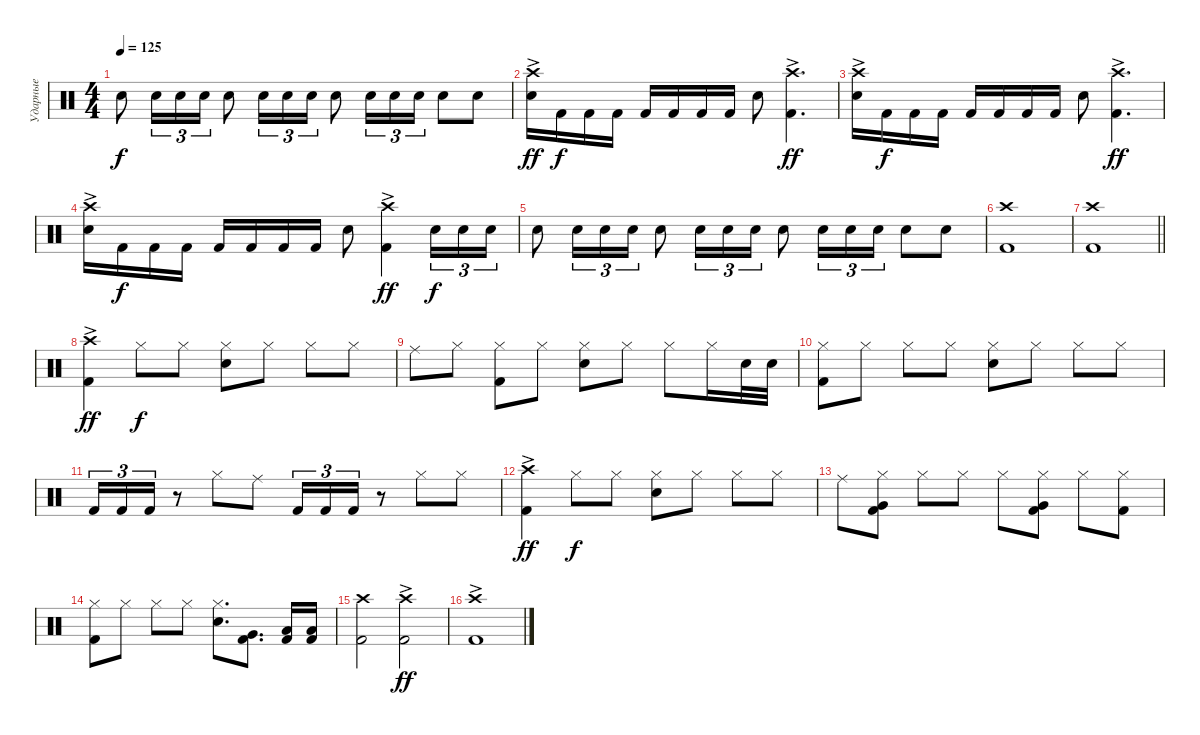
\track ("Ударные" "Ударные") {instrument percussion}
\staff
\articulation defaults
\ts (4 4)
\tempo 125
\clef neutral
\ks c "Snare (hit) 2".8{dy f} "Snare (hit) 2".16{tu (3 2)} "Snare (hit) 2".16{tu (3 2)} "Snare (hit) 2".16{tu (3 2)} "Snare (hit) 2".8 "Snare (hit) 2".16{tu (3 2)} "Snare (hit) 2".16{tu (3 2)} "Snare (hit) 2".16{tu (3 2)} "Snare (hit) 2".8 "Snare (hit) 2".16{tu (3 2)} "Snare (hit) 2".16{tu (3 2)} "Snare (hit) 2".16{tu (3 2)} "Snare (hit) 2".8 "Snare (hit) 2".8
|
("Snare (hit) 2" "Crash high (hit)"{ac}).16{dy ff} "Kick (hit) 2".16{dy f} "Kick (hit) 2".16 "Kick (hit) 2".16 "Kick (hit) 2".16 "Kick (hit) 2".16 "Kick (hit) 2".16 "Kick (hit) 2".16 "Snare (hit) 2".8 ("Kick (hit) 2" "Crash high (hit)"{ac}).4{d dy ff} |
("Snare (hit) 2" "Crash high (hit)"{ac}).16 "Kick (hit) 2".16{dy f} "Kick (hit) 2".16 "Kick (hit) 2".16 "Kick (hit) 2".16 "Kick (hit) 2".16 "Kick (hit) 2".16 "Kick (hit) 2".16 "Snare (hit) 2".8 ("Kick (hit) 2" "Crash high (hit)"{ac}).4{d dy ff} |
("Snare (hit) 2" "Crash high (hit)"{ac}).16 "Kick (hit) 2".16{dy f} "Kick (hit) 2".16 "Kick (hit) 2".16 "Kick (hit) 2".16 "Kick (hit) 2".16 "Kick (hit) 2".16 "Kick (hit) 2".16 "Snare (hit) 2".8 ("Kick (hit) 2" "Crash high (hit)"{ac}).4{dy ff} "Snare (hit) 2".16{tu (3 2) dy f} "Snare (hit) 2".16{tu (3 2)} "Snare (hit) 2".16{tu (3 2)} |
"Snare (hit) 2".8 "Snare (hit) 2".16{tu (3 2)} "Snare (hit) 2".16{tu (3 2)} "Snare (hit) 2".16{tu (3 2)} "Snare (hit) 2".8 "Snare (hit) 2".16{tu (3 2)} "Snare (hit) 2".16{tu (3 2)} "Snare (hit) 2".16{tu (3 2)} "Snare (hit) 2".8 "Snare (hit) 2".16{tu (3 2)} "Snare (hit) 2".16{tu (3 2)} "Snare (hit) 2".16{tu (3 2)} "Snare (hit) 2".8 "Snare (hit) 2".8 |
("Kick (hit) 2" "Crash high (hit)").1 |
\barLineRight lightlight
("Kick (hit) 2" "Crash high (hit)").1 |
("Kick (hit) 2" "Crash high (hit)"{ac}).4{dy ff} "Hi-Hat (closed)".8{dy f} "Hi-Hat (closed)".8 ("Snare (hit) 2" "Hi-Hat (closed)").8 "Hi-Hat (closed)".8 "Hi-Hat (closed)".8 "Hi-Hat (closed)".8 |
"Ride (middle)".8 "Hi-Hat (closed)".8 ("Kick (hit) 2" "Hi-Hat (closed)").8 "Hi-Hat (closed)".8 ("Snare (hit) 2" "Hi-Hat (closed)").8 "Hi-Hat (closed)".8 "Hi-Hat (closed)".8 "Hi-Hat (closed)".16 "Electric Snare (hit)".32 "Electric Snare (hit)".32 |
("Kick (hit) 2" "Hi-Hat (closed)").8 "Hi-Hat (closed)".8 "Hi-Hat (closed)".8 "Hi-Hat (closed)".8 ("Snare (hit) 2" "Hi-Hat (closed)").8 "Hi-Hat (closed)".8 "Hi-Hat (closed)".8 "Hi-Hat (closed)".8 |
"Kick (hit) 2".16{tu (3 2)} "Kick (hit) 2".16{tu (3 2)} "Kick (hit) 2".16{tu (3 2)} r.8 "Hi-Hat (closed)".8 "Ride (middle)".8 "Kick (hit) 2".16{tu (3 2)} "Kick (hit) 2".16{tu (3 2)} "Kick (hit) 2".16{tu (3 2)} r.8 "Hi-Hat (closed)".8 "Hi-Hat (closed)".8 |
("Kick (hit) 2" "Crash high (hit)"{ac}).4{dy ff} "Hi-Hat (closed)".8{dy f} "Hi-Hat (closed)".8 ("Snare (hit) 2" "Hi-Hat (closed)").8 "Hi-Hat (closed)".8 "Hi-Hat (closed)".8 "Hi-Hat (closed)".8 |
"Ride (middle)".8 ("Kick (hit) 2" "Very Low Tom (hit)" "Hi-Hat (closed)").8 "Hi-Hat (closed)".8 "Hi-Hat (closed)".8 "Hi-Hat (closed)".8 ("Kick (hit) 2" "Very Low Tom (hit)" "Hi-Hat (closed)").8 "Hi-Hat (closed)".8 ("Kick (hit) 2" "Hi-Hat (closed)").8 |
("Kick (hit) 2" "Hi-Hat (closed)").8 "Hi-Hat (closed)".8 "Hi-Hat (closed)".8 "Hi-Hat (closed)".8 ("Snare (hit) 2" "Hi-Hat (closed)").8{d} ("Kick (hit) 2" "Very Low Tom (hit)").8{d} ("Kick (hit) 2" "Low Floor Tom (hit)").16 ("Kick (hit) 2" "Low Floor Tom (hit)").16 |
("Kick (hit) 2" "Crash high (hit)").2 ("Kick (hit) 2" "Crash high (hit)"{ac}).2{dy ff} |
("Kick (hit) 2" "Crash high (hit)"{ac}).1
